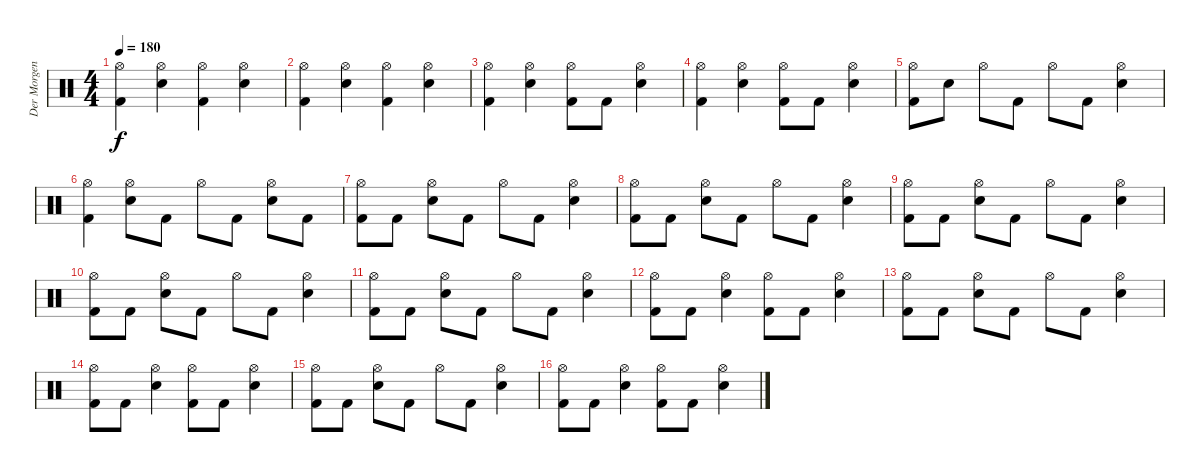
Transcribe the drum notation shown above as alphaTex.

\track ("Der Morgenstern" "Der Morgen") {instrument percussion}
\staff {score}
\articulation defaults
\ts (4 4)
\tempo 180
\clef neutral
\ks c
("Hi-Hat (open)" "Kick (hit) 2").4{dy f} ("Hi-Hat (open)" "Electric Snare (hit)").4 ("Hi-Hat (open)" "Kick (hit) 2").4 ("Hi-Hat (open)" "Electric Snare (hit)").4 |
("Hi-Hat (open)" "Kick (hit) 2").4 ("Hi-Hat (open)" "Electric Snare (hit)").4 ("Hi-Hat (open)" "Kick (hit) 2").4 ("Hi-Hat (open)" "Electric Snare (hit)").4 |
("Hi-Hat (open)" "Kick (hit) 2").4 ("Hi-Hat (open)" "Electric Snare (hit)").4 ("Hi-Hat (open)" "Kick (hit) 2").8 "Kick (hit) 2".8 ("Hi-Hat (open)" "Electric Snare (hit)").4 |
("Hi-Hat (open)" "Kick (hit) 2").4 ("Hi-Hat (open)" "Electric Snare (hit)").4 ("Hi-Hat (open)" "Kick (hit) 2").8 "Kick (hit) 2".8 ("Hi-Hat (open)" "Electric Snare (hit)").4 |
("Hi-Hat (open)" "Kick (hit) 2").8 "Electric Snare (hit)".8 "Hi-Hat (open)".8 "Kick (hit) 2".8 "Hi-Hat (open)".8 "Kick (hit) 2".8 ("Hi-Hat (open)" "Electric Snare (hit)").4 |
("Hi-Hat (open)" "Kick (hit) 2").4 ("Hi-Hat (open)" "Electric Snare (hit)").8 "Kick (hit) 2".8 "Hi-Hat (open)".8 "Kick (hit) 2".8 ("Hi-Hat (open)" "Electric Snare (hit)").8 "Kick (hit) 2".8 |
("Hi-Hat (open)" "Kick (hit) 2").8 "Kick (hit) 2".8 ("Hi-Hat (open)" "Electric Snare (hit)").8 "Kick (hit) 2".8 "Hi-Hat (open)".8 "Kick (hit) 2".8 ("Hi-Hat (open)" "Electric Snare (hit)").4 |
("Hi-Hat (open)" "Kick (hit) 2").8 "Kick (hit) 2".8 ("Hi-Hat (open)" "Electric Snare (hit)").8 "Kick (hit) 2".8 "Hi-Hat (open)".8 "Kick (hit) 2".8 ("Hi-Hat (open)" "Electric Snare (hit)").4 |
("Hi-Hat (open)" "Kick (hit) 2").8 "Kick (hit) 2".8 ("Hi-Hat (open)" "Electric Snare (hit)").8 "Kick (hit) 2".8 "Hi-Hat (open)".8 "Kick (hit) 2".8 ("Hi-Hat (open)" "Electric Snare (hit)").4 |
("Hi-Hat (open)" "Kick (hit) 2").8 "Kick (hit) 2".8 ("Hi-Hat (open)" "Electric Snare (hit)").8 "Kick (hit) 2".8 "Hi-Hat (open)".8 "Kick (hit) 2".8 ("Hi-Hat (open)" "Electric Snare (hit)").4 |
("Hi-Hat (open)" "Kick (hit) 2").8 "Kick (hit) 2".8 ("Hi-Hat (open)" "Electric Snare (hit)").8 "Kick (hit) 2".8 "Hi-Hat (open)".8 "Kick (hit) 2".8 ("Hi-Hat (open)" "Electric Snare (hit)").4 |
("Hi-Hat (open)" "Kick (hit) 2").8 "Kick (hit) 2".8 ("Hi-Hat (open)" "Electric Snare (hit)").4 ("Hi-Hat (open)" "Kick (hit) 2").8 "Kick (hit) 2".8 ("Hi-Hat (open)" "Electric Snare (hit)").4 |
("Hi-Hat (open)" "Kick (hit) 2").8 "Kick (hit) 2".8 ("Hi-Hat (open)" "Electric Snare (hit)").8 "Kick (hit) 2".8 "Hi-Hat (open)".8 "Kick (hit) 2".8 ("Hi-Hat (open)" "Electric Snare (hit)").4 |
("Hi-Hat (open)" "Kick (hit) 2").8 "Kick (hit) 2".8 ("Hi-Hat (open)" "Electric Snare (hit)").4 ("Hi-Hat (open)" "Kick (hit) 2").8 "Kick (hit) 2".8 ("Hi-Hat (open)" "Electric Snare (hit)").4 |
("Hi-Hat (open)" "Kick (hit) 2").8 "Kick (hit) 2".8 ("Hi-Hat (open)" "Electric Snare (hit)").8 "Kick (hit) 2".8 "Hi-Hat (open)".8 "Kick (hit) 2".8 ("Hi-Hat (open)" "Electric Snare (hit)").4 |
("Hi-Hat (open)" "Kick (hit) 2").8 "Kick (hit) 2".8 ("Hi-Hat (open)" "Electric Snare (hit)").4 ("Hi-Hat (open)" "Kick (hit) 2").8 "Kick (hit) 2".8 ("Hi-Hat (open)" "Electric Snare (hit)").4
